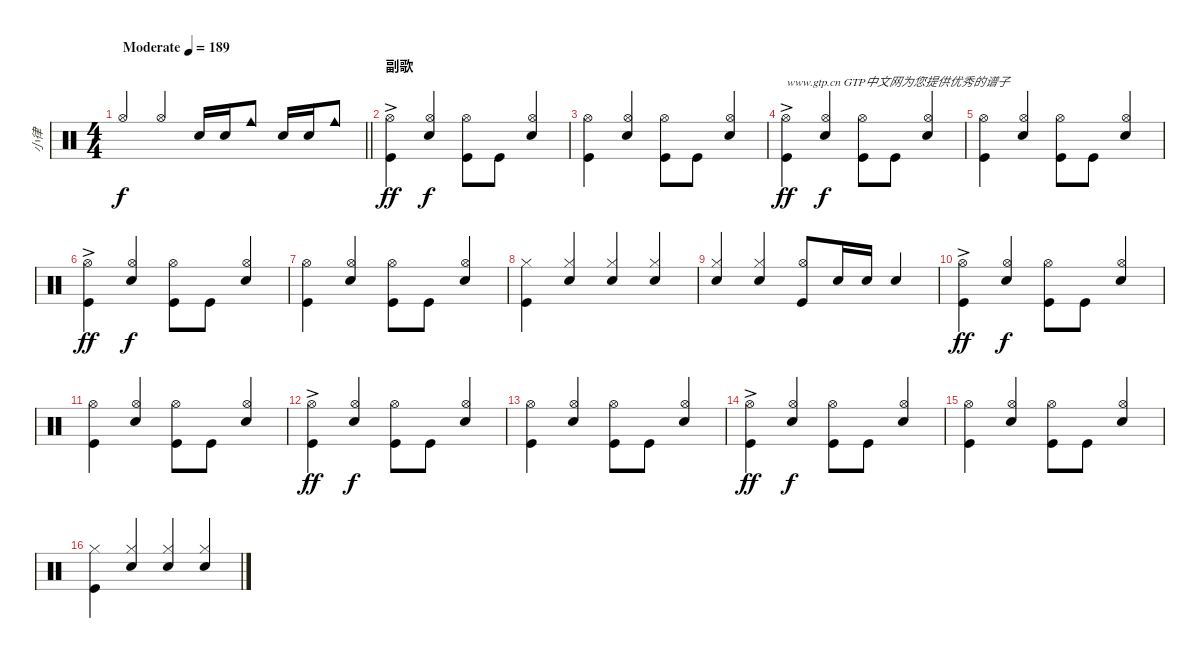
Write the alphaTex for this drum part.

\track ("小律" "小律") {instrument percussion}
\staff {score}
\articulation defaults
\ts (4 4)
\tempo (189 "Moderate")
\clef neutral
\barLineRight lightlight
\ks c "Hi-Hat (open)".4{dy f beam Up} "Hi-Hat (open)".4{beam Up} "Snare (hit) 2".16{beam Up} "Snare (hit) 2".16{beam Up} "Cowbell medium (hit)".8{beam Up} "Snare (hit) 2".16{beam Up} "Snare (hit) 2".16{beam Up} "Cowbell medium (hit)".8{beam Up}
|
\section ("" "副歌")
("Kick (hit)" "Hi-Hat (open)"{ac}).4{dy ff} ("Snare (hit) 2" "Hi-Hat (open)").4{dy f beam Up} ("Hi-Hat (open)" "Kick (hit)").8 "Kick (hit)".8 ("Snare (hit) 2" "Hi-Hat (open)").4{beam Up} |
("Hi-Hat (open)" "Kick (hit)").4 ("Hi-Hat (open)" "Snare (hit) 2").4{beam Up} ("Hi-Hat (open)" "Kick (hit)").8 "Kick (hit)".8 ("Hi-Hat (open)" "Snare (hit) 2").4{beam Up} |
("Kick (hit)" "Hi-Hat (open)"{ac}).4{txt "www.gtp.cn GTP中文网为您提供优秀的谱子" dy ff} ("Snare (hit) 2" "Hi-Hat (open)").4{dy f beam Up} ("Hi-Hat (open)" "Kick (hit)").8 "Kick (hit)".8 ("Snare (hit) 2" "Hi-Hat (open)").4{beam Up} |
("Hi-Hat (open)" "Kick (hit)").4 ("Hi-Hat (open)" "Snare (hit) 2").4{beam Up} ("Hi-Hat (open)" "Kick (hit)").8 "Kick (hit)".8 ("Hi-Hat (open)" "Snare (hit) 2").4{beam Up} |
("Kick (hit)" "Hi-Hat (open)"{ac}).4{dy ff} ("Snare (hit) 2" "Hi-Hat (open)").4{dy f beam Up} ("Hi-Hat (open)" "Kick (hit)").8 "Kick (hit)".8 ("Snare (hit) 2" "Hi-Hat (open)").4{beam Up} |
("Hi-Hat (open)" "Kick (hit)").4 ("Hi-Hat (open)" "Snare (hit) 2").4{beam Up} ("Hi-Hat (open)" "Kick (hit)").8 "Kick (hit)".8 ("Hi-Hat (open)" "Snare (hit) 2").4{beam Up} |
("Kick (hit)" "Hi-Hat (closed)").4 ("Hi-Hat (closed)" "Snare (hit) 2").4{beam Up} ("Hi-Hat (closed)" "Snare (hit) 2").4{beam Up} ("Hi-Hat (closed)" "Snare (hit) 2").4{beam Up} |
("Hi-Hat (closed)" "Snare (hit) 2").4{beam Up} ("Hi-Hat (closed)" "Snare (hit) 2").4{beam Up} ("Hi-Hat (open)" "Kick (hit)").8{beam Up} "Snare (hit) 2".16{beam Up} "Snare (hit) 2".16{beam Up} "Snare (hit) 2".4{beam Up} |
("Kick (hit)" "Hi-Hat (open)"{ac}).4{dy ff} ("Snare (hit) 2" "Hi-Hat (open)").4{dy f beam Up} ("Hi-Hat (open)" "Kick (hit)").8 "Kick (hit)".8 ("Snare (hit) 2" "Hi-Hat (open)").4{beam Up} |
("Hi-Hat (open)" "Kick (hit)").4 ("Hi-Hat (open)" "Snare (hit) 2").4{beam Up} ("Hi-Hat (open)" "Kick (hit)").8 "Kick (hit)".8 ("Hi-Hat (open)" "Snare (hit) 2").4{beam Up} |
("Kick (hit)" "Hi-Hat (open)"{ac}).4{dy ff} ("Snare (hit) 2" "Hi-Hat (open)").4{dy f beam Up} ("Hi-Hat (open)" "Kick (hit)").8 "Kick (hit)".8 ("Snare (hit) 2" "Hi-Hat (open)").4{beam Up} |
("Hi-Hat (open)" "Kick (hit)").4 ("Hi-Hat (open)" "Snare (hit) 2").4{beam Up} ("Hi-Hat (open)" "Kick (hit)").8 "Kick (hit)".8 ("Hi-Hat (open)" "Snare (hit) 2").4{beam Up} |
("Kick (hit)" "Hi-Hat (open)"{ac}).4{dy ff} ("Snare (hit) 2" "Hi-Hat (open)").4{dy f beam Up} ("Hi-Hat (open)" "Kick (hit)").8 "Kick (hit)".8 ("Snare (hit) 2" "Hi-Hat (open)").4{beam Up} |
("Hi-Hat (open)" "Kick (hit)").4 ("Hi-Hat (open)" "Snare (hit) 2").4{beam Up} ("Hi-Hat (open)" "Kick (hit)").8 "Kick (hit)".8 ("Hi-Hat (open)" "Snare (hit) 2").4{beam Up} |
("Kick (hit)" "Hi-Hat (closed)").4 ("Hi-Hat (closed)" "Snare (hit) 2").4{beam Up} ("Hi-Hat (closed)" "Snare (hit) 2").4{beam Up} ("Hi-Hat (closed)" "Snare (hit) 2").4{beam Up}
